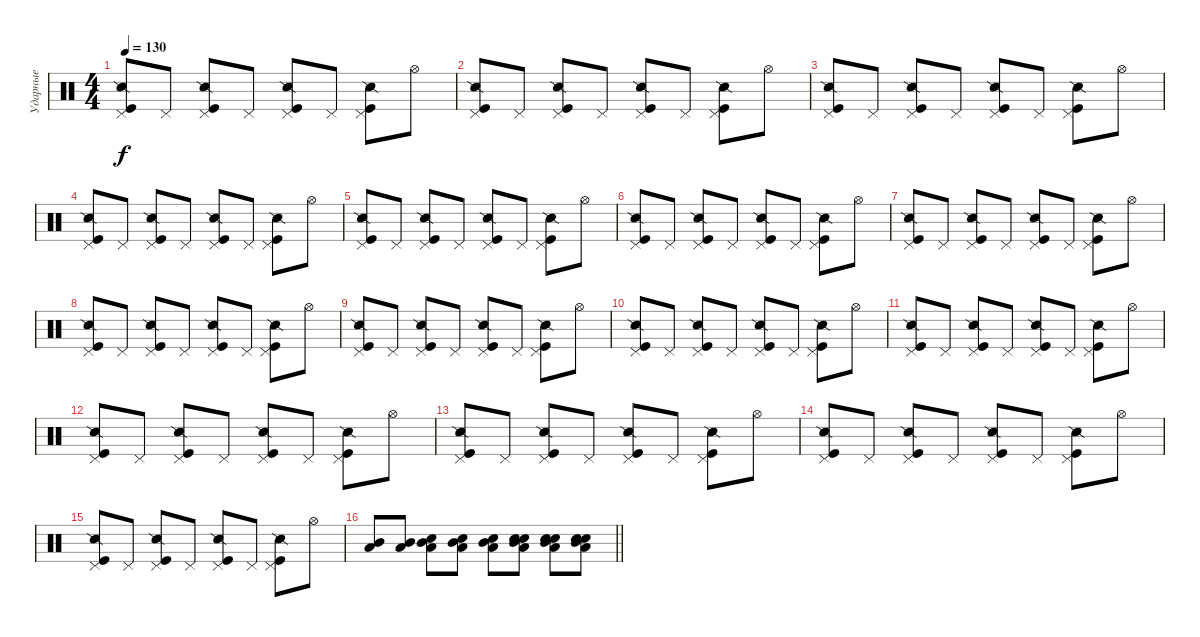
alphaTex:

\track ("Ударные" "Ударные") {instrument percussion}
\staff {score}
\articulation defaults
\ts (4 4)
\tempo 130
\clef neutral
\ks c
("Pedal Hi-Hat (hit)" "Kick (hit)" "Snare (side stick) 2").8{dy f} "Pedal Hi-Hat (hit)".8 ("Pedal Hi-Hat (hit)" "Kick (hit)" "Snare (side stick) 2").8 "Pedal Hi-Hat (hit)".8 ("Pedal Hi-Hat (hit)" "Kick (hit)" "Snare (side stick) 2").8 "Pedal Hi-Hat (hit)".8 ("Pedal Hi-Hat (hit)" "Kick (hit)" "Snare (side stick) 2").8 "Hi-Hat (open)".8 |
("Pedal Hi-Hat (hit)" "Kick (hit)" "Snare (side stick) 2").8 "Pedal Hi-Hat (hit)".8 ("Pedal Hi-Hat (hit)" "Kick (hit)" "Snare (side stick) 2").8 "Pedal Hi-Hat (hit)".8 ("Pedal Hi-Hat (hit)" "Kick (hit)" "Snare (side stick) 2").8 "Pedal Hi-Hat (hit)".8 ("Pedal Hi-Hat (hit)" "Kick (hit)" "Snare (side stick) 2").8 "Hi-Hat (open)".8 |
("Pedal Hi-Hat (hit)" "Kick (hit)" "Snare (side stick) 2").8 "Pedal Hi-Hat (hit)".8 ("Pedal Hi-Hat (hit)" "Kick (hit)" "Snare (side stick) 2").8 "Pedal Hi-Hat (hit)".8 ("Pedal Hi-Hat (hit)" "Kick (hit)" "Snare (side stick) 2").8 "Pedal Hi-Hat (hit)".8 ("Pedal Hi-Hat (hit)" "Kick (hit)" "Snare (side stick) 2").8 "Hi-Hat (open)".8 |
("Pedal Hi-Hat (hit)" "Kick (hit)" "Snare (side stick) 2").8 "Pedal Hi-Hat (hit)".8 ("Pedal Hi-Hat (hit)" "Kick (hit)" "Snare (side stick) 2").8 "Pedal Hi-Hat (hit)".8 ("Pedal Hi-Hat (hit)" "Kick (hit)" "Snare (side stick) 2").8 "Pedal Hi-Hat (hit)".8 ("Pedal Hi-Hat (hit)" "Kick (hit)" "Snare (side stick) 2").8 "Hi-Hat (open)".8 |
("Pedal Hi-Hat (hit)" "Kick (hit)" "Snare (side stick) 2").8 "Pedal Hi-Hat (hit)".8 ("Pedal Hi-Hat (hit)" "Kick (hit)" "Snare (side stick) 2").8 "Pedal Hi-Hat (hit)".8 ("Pedal Hi-Hat (hit)" "Kick (hit)" "Snare (side stick) 2").8 "Pedal Hi-Hat (hit)".8 ("Pedal Hi-Hat (hit)" "Kick (hit)" "Snare (side stick) 2").8 "Hi-Hat (open)".8 |
("Pedal Hi-Hat (hit)" "Kick (hit)" "Snare (side stick) 2").8 "Pedal Hi-Hat (hit)".8 ("Pedal Hi-Hat (hit)" "Kick (hit)" "Snare (side stick) 2").8 "Pedal Hi-Hat (hit)".8 ("Pedal Hi-Hat (hit)" "Kick (hit)" "Snare (side stick) 2").8 "Pedal Hi-Hat (hit)".8 ("Pedal Hi-Hat (hit)" "Kick (hit)" "Snare (side stick) 2").8 "Hi-Hat (open)".8 |
("Pedal Hi-Hat (hit)" "Kick (hit)" "Snare (side stick) 2").8 "Pedal Hi-Hat (hit)".8 ("Pedal Hi-Hat (hit)" "Kick (hit)" "Snare (side stick) 2").8 "Pedal Hi-Hat (hit)".8 ("Pedal Hi-Hat (hit)" "Kick (hit)" "Snare (side stick) 2").8 "Pedal Hi-Hat (hit)".8 ("Pedal Hi-Hat (hit)" "Kick (hit)" "Snare (side stick) 2").8 "Hi-Hat (open)".8 |
("Pedal Hi-Hat (hit)" "Kick (hit)" "Snare (side stick) 2").8 "Pedal Hi-Hat (hit)".8 ("Pedal Hi-Hat (hit)" "Kick (hit)" "Snare (side stick) 2").8 "Pedal Hi-Hat (hit)".8 ("Pedal Hi-Hat (hit)" "Kick (hit)" "Snare (side stick) 2").8 "Pedal Hi-Hat (hit)".8 ("Pedal Hi-Hat (hit)" "Kick (hit)" "Snare (side stick) 2").8 "Hi-Hat (open)".8 |
("Pedal Hi-Hat (hit)" "Kick (hit)" "Snare (side stick) 2").8 "Pedal Hi-Hat (hit)".8 ("Pedal Hi-Hat (hit)" "Kick (hit)" "Snare (side stick) 2").8 "Pedal Hi-Hat (hit)".8 ("Pedal Hi-Hat (hit)" "Kick (hit)" "Snare (side stick) 2").8 "Pedal Hi-Hat (hit)".8 ("Pedal Hi-Hat (hit)" "Kick (hit)" "Snare (side stick) 2").8 "Hi-Hat (open)".8 |
("Pedal Hi-Hat (hit)" "Kick (hit)" "Snare (side stick) 2").8 "Pedal Hi-Hat (hit)".8 ("Pedal Hi-Hat (hit)" "Kick (hit)" "Snare (side stick) 2").8 "Pedal Hi-Hat (hit)".8 ("Pedal Hi-Hat (hit)" "Kick (hit)" "Snare (side stick) 2").8 "Pedal Hi-Hat (hit)".8 ("Pedal Hi-Hat (hit)" "Kick (hit)" "Snare (side stick) 2").8 "Hi-Hat (open)".8 |
("Pedal Hi-Hat (hit)" "Kick (hit)" "Snare (side stick) 2").8 "Pedal Hi-Hat (hit)".8 ("Pedal Hi-Hat (hit)" "Kick (hit)" "Snare (side stick) 2").8 "Pedal Hi-Hat (hit)".8 ("Pedal Hi-Hat (hit)" "Kick (hit)" "Snare (side stick) 2").8 "Pedal Hi-Hat (hit)".8 ("Pedal Hi-Hat (hit)" "Kick (hit)" "Snare (side stick) 2").8 "Hi-Hat (open)".8 |
("Pedal Hi-Hat (hit)" "Kick (hit)" "Snare (side stick) 2").8 "Pedal Hi-Hat (hit)".8 ("Pedal Hi-Hat (hit)" "Kick (hit)" "Snare (side stick) 2").8 "Pedal Hi-Hat (hit)".8 ("Pedal Hi-Hat (hit)" "Kick (hit)" "Snare (side stick) 2").8 "Pedal Hi-Hat (hit)".8 ("Pedal Hi-Hat (hit)" "Kick (hit)" "Snare (side stick) 2").8 "Hi-Hat (open)".8 |
("Pedal Hi-Hat (hit)" "Kick (hit)" "Snare (side stick) 2").8 "Pedal Hi-Hat (hit)".8 ("Pedal Hi-Hat (hit)" "Kick (hit)" "Snare (side stick) 2").8 "Pedal Hi-Hat (hit)".8 ("Pedal Hi-Hat (hit)" "Kick (hit)" "Snare (side stick) 2").8 "Pedal Hi-Hat (hit)".8 ("Pedal Hi-Hat (hit)" "Kick (hit)" "Snare (side stick) 2").8 "Hi-Hat (open)".8 |
("Pedal Hi-Hat (hit)" "Kick (hit)" "Snare (side stick) 2").8 "Pedal Hi-Hat (hit)".8 ("Pedal Hi-Hat (hit)" "Kick (hit)" "Snare (side stick) 2").8 "Pedal Hi-Hat (hit)".8 ("Pedal Hi-Hat (hit)" "Kick (hit)" "Snare (side stick) 2").8 "Pedal Hi-Hat (hit)".8 ("Pedal Hi-Hat (hit)" "Kick (hit)" "Snare (side stick) 2").8 "Hi-Hat (open)".8 |
("Pedal Hi-Hat (hit)" "Kick (hit)" "Snare (side stick) 2").8 "Pedal Hi-Hat (hit)".8 ("Pedal Hi-Hat (hit)" "Kick (hit)" "Snare (side stick) 2").8 "Pedal Hi-Hat (hit)".8 ("Pedal Hi-Hat (hit)" "Kick (hit)" "Snare (side stick) 2").8 "Pedal Hi-Hat (hit)".8 ("Pedal Hi-Hat (hit)" "Kick (hit)" "Snare (side stick) 2").8 "Hi-Hat (open)".8 |
\barLineRight lightlight
("Mid Tom (hit)" "Low Tom (hit)").8 ("Mid Tom (hit)" "Low Tom (hit)").8 ("Mid Tom (hit)" "Snare (hit) 2" "Low Tom (hit)").8 ("Mid Tom (hit)" "Snare (hit) 2" "Low Tom (hit)").8 ("Mid Tom (hit)" "Snare (hit) 2" "Low Tom (hit)").8 ("Snare (hit) 2" "Mid Tom (hit)" "Electric Snare (hit)" "Low Tom (hit)").8 ("Snare (hit) 2" "Mid Tom (hit)" "Electric Snare (hit)" "Low Tom (hit)").8 ("Snare (hit) 2" "Mid Tom (hit)" "Electric Snare (hit)" "Low Tom (hit)").8
